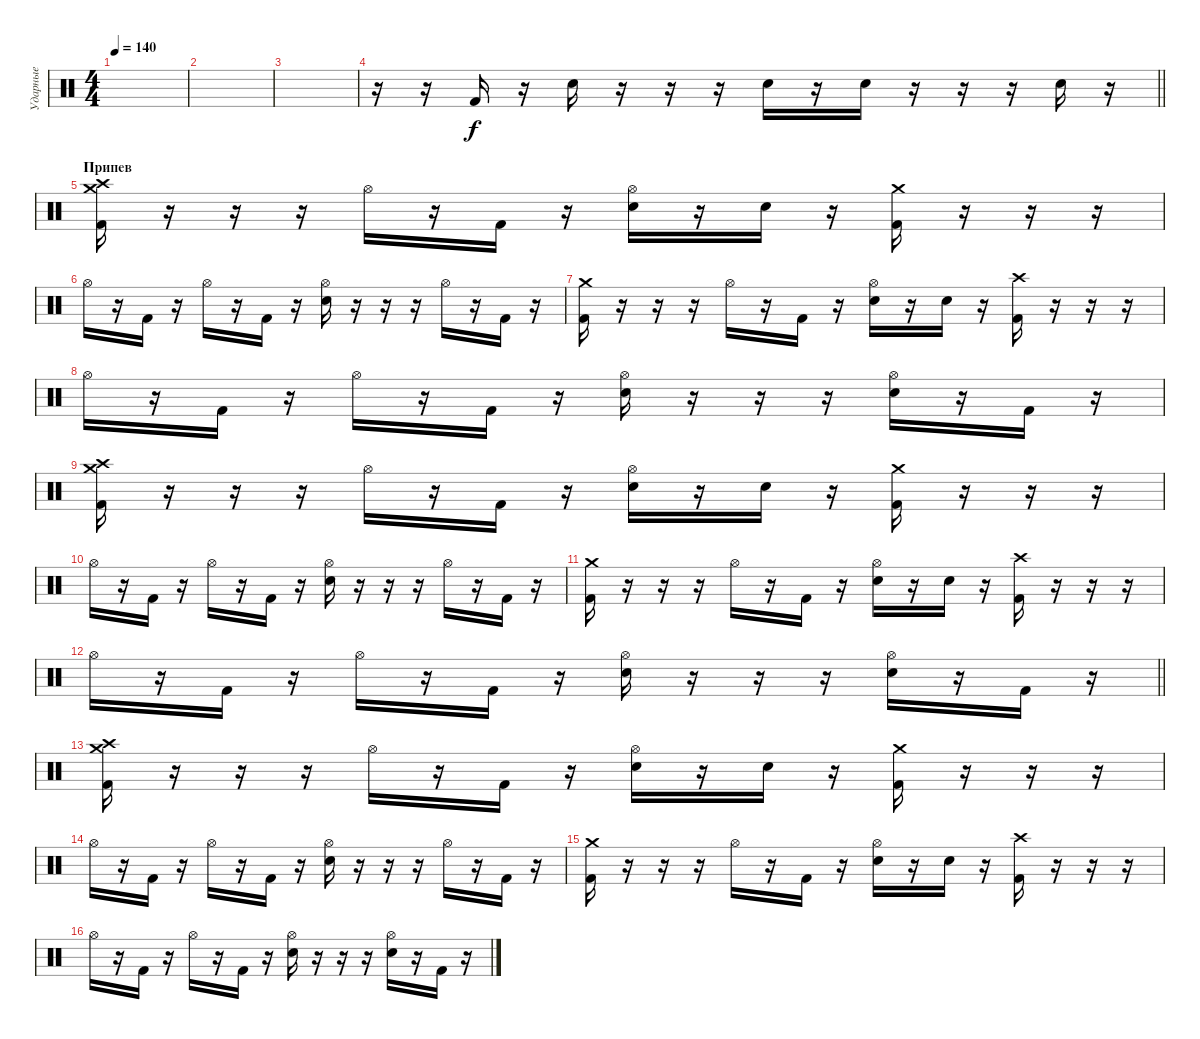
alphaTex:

\track ("Ударные" "Ударные") {instrument percussion}
\staff {score}
\articulation defaults
\ts (4 4)
\tempo 140
\clef neutral
\ks c
|
|
|
\barLineRight lightlight
r.16 r.16 "Kick (hit) 2".16 r.16 "Snare (hit) 2".16 r.16 r.16 r.16 "Snare (hit) 2".16 r.16 "Snare (hit) 2".16 r.16 r.16 r.16 "Snare (hit) 2".16 r.16 |
\section ("" "Припев")
("Crash high (hit)" "Crash medium (hit)" "Kick (hit) 2").16 r.16 r.16 r.16 "Hi-Hat (open)".16 r.16 "Kick (hit) 2".16 r.16 ("Hi-Hat (open)" "Snare (hit) 2").16 r.16 "Snare (hit) 2".16 r.16 ("Crash medium (hit)" "Kick (hit) 2").16 r.16 r.16 r.16 |
"Hi-Hat (open)".16 r.16 "Kick (hit) 2".16 r.16 "Hi-Hat (open)".16 r.16 "Kick (hit) 2".16 r.16 ("Hi-Hat (open)" "Snare (hit) 2").16 r.16 r.16 r.16 "Hi-Hat (open)".16 r.16 "Kick (hit) 2".16 r.16 |
("Crash medium (hit)" "Kick (hit) 2").16 r.16 r.16 r.16 "Hi-Hat (open)".16 r.16 "Kick (hit) 2".16 r.16 ("Hi-Hat (open)" "Snare (hit) 2").16 r.16 "Snare (hit) 2".16 r.16 ("Crash high (hit)" "Kick (hit) 2").16 r.16 r.16 r.16 |
"Hi-Hat (open)".16 r.16 "Kick (hit) 2".16 r.16 "Hi-Hat (open)".16 r.16 "Kick (hit) 2".16 r.16 ("Hi-Hat (open)" "Snare (hit) 2").16 r.16 r.16 r.16 ("Hi-Hat (open)" "Snare (hit) 2").16 r.16 "Kick (hit) 2".16 r.16 |
("Crash high (hit)" "Crash medium (hit)" "Kick (hit) 2").16 r.16 r.16 r.16 "Hi-Hat (open)".16 r.16 "Kick (hit) 2".16 r.16 ("Hi-Hat (open)" "Snare (hit) 2").16 r.16 "Snare (hit) 2".16 r.16 ("Crash medium (hit)" "Kick (hit) 2").16 r.16 r.16 r.16 |
"Hi-Hat (open)".16 r.16 "Kick (hit) 2".16 r.16 "Hi-Hat (open)".16 r.16 "Kick (hit) 2".16 r.16 ("Hi-Hat (open)" "Snare (hit) 2").16 r.16 r.16 r.16 "Hi-Hat (open)".16 r.16 "Kick (hit) 2".16 r.16 |
("Crash medium (hit)" "Kick (hit) 2").16 r.16 r.16 r.16 "Hi-Hat (open)".16 r.16 "Kick (hit) 2".16 r.16 ("Hi-Hat (open)" "Snare (hit) 2").16 r.16 "Snare (hit) 2".16 r.16 ("Crash high (hit)" "Kick (hit) 2").16 r.16 r.16 r.16 |
\barLineRight lightlight "Hi-Hat (open)".16
r.16 "Kick (hit) 2".16 r.16 "Hi-Hat (open)".16 r.16 "Kick (hit) 2".16 r.16 ("Hi-Hat (open)" "Snare (hit) 2").16 r.16 r.16 r.16 ("Hi-Hat (open)" "Snare (hit) 2").16 r.16 "Kick (hit) 2".16 r.16 |
("Crash high (hit)" "Crash medium (hit)" "Kick (hit) 2").16 r.16 r.16 r.16 "Hi-Hat (open)".16 r.16 "Kick (hit) 2".16 r.16 ("Hi-Hat (open)" "Snare (hit) 2").16 r.16 "Snare (hit) 2".16 r.16 ("Crash medium (hit)" "Kick (hit) 2").16 r.16 r.16 r.16 |
"Hi-Hat (open)".16 r.16 "Kick (hit) 2".16 r.16 "Hi-Hat (open)".16 r.16 "Kick (hit) 2".16 r.16 ("Hi-Hat (open)" "Snare (hit) 2").16 r.16 r.16 r.16 "Hi-Hat (open)".16 r.16 "Kick (hit) 2".16 r.16 |
("Crash medium (hit)" "Kick (hit) 2").16 r.16 r.16 r.16 "Hi-Hat (open)".16 r.16 "Kick (hit) 2".16 r.16 ("Hi-Hat (open)" "Snare (hit) 2").16 r.16 "Snare (hit) 2".16 r.16 ("Crash high (hit)" "Kick (hit) 2").16 r.16 r.16 r.16 |
"Hi-Hat (open)".16 r.16 "Kick (hit) 2".16 r.16 "Hi-Hat (open)".16 r.16 "Kick (hit) 2".16 r.16 ("Hi-Hat (open)" "Snare (hit) 2").16 r.16 r.16 r.16 ("Hi-Hat (open)" "Snare (hit) 2").16 r.16 "Kick (hit) 2".16 r.16
